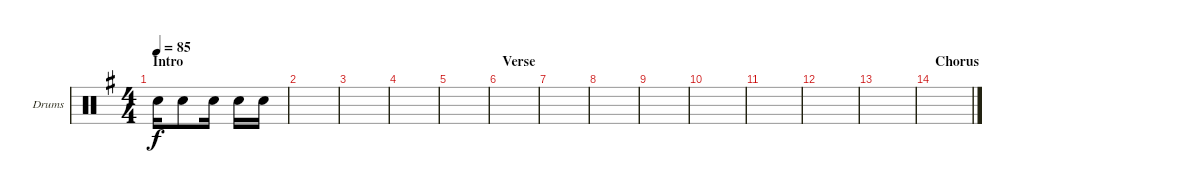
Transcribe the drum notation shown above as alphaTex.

\defaultSystemsLayout 4
\bracketExtendMode groupsimilarinstruments
\firstSystemTrackNameOrientation horizontal
\otherSystemsTrackNameOrientation horizontal
\track ("Drumkit" "Drums") {instrument percussion}
\staff {score}
\articulation defaults
\ts (4 4)
\section ("" "Intro")
\ac
\tempo 85
\clef neutral
\ks g "Snare (hit) 2".16{dy f} "Snare (hit) 2".8 "Snare (hit) 2".16 "Snare (hit) 2".16 "Snare (hit) 2".16
|
|
|
|
|
\section ("" "Verse")
|
|
|
|
|
|
|
|
\section ("" "Chorus")
